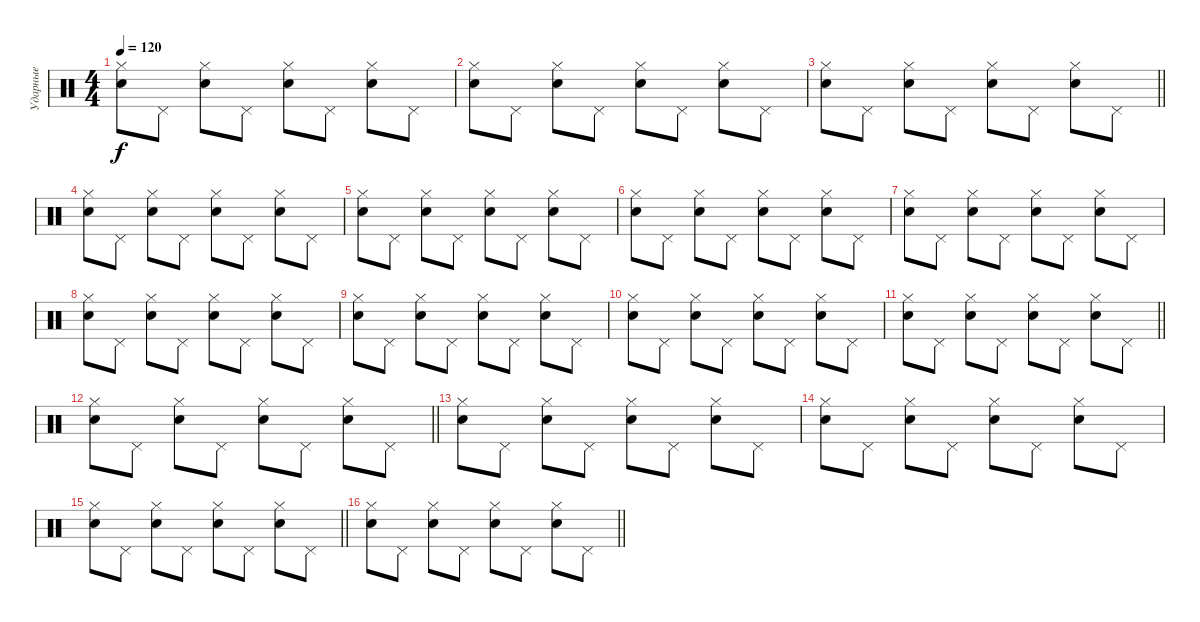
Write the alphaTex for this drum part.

\track ("Ударные" "Ударные") {instrument percussion}
\staff {score}
\articulation defaults
\ts (4 4)
\tempo 120
\clef neutral
\ks c
("Snare (hit) 2" "Hi-Hat (closed)").8{dy f} "Pedal Hi-Hat (hit)".8 ("Snare (hit) 2" "Hi-Hat (closed)").8 "Pedal Hi-Hat (hit)".8 ("Snare (hit) 2" "Hi-Hat (closed)").8 "Pedal Hi-Hat (hit)".8 ("Snare (hit) 2" "Hi-Hat (closed)").8 "Pedal Hi-Hat (hit)".8 |
("Snare (hit) 2" "Hi-Hat (closed)").8 "Pedal Hi-Hat (hit)".8 ("Snare (hit) 2" "Hi-Hat (closed)").8 "Pedal Hi-Hat (hit)".8 ("Snare (hit) 2" "Hi-Hat (closed)").8 "Pedal Hi-Hat (hit)".8 ("Snare (hit) 2" "Hi-Hat (closed)").8 "Pedal Hi-Hat (hit)".8 |
\barLineRight lightlight
("Snare (hit) 2" "Hi-Hat (closed)").8 "Pedal Hi-Hat (hit)".8 ("Snare (hit) 2" "Hi-Hat (closed)").8 "Pedal Hi-Hat (hit)".8 ("Snare (hit) 2" "Hi-Hat (closed)").8 "Pedal Hi-Hat (hit)".8 ("Snare (hit) 2" "Hi-Hat (closed)").8 "Pedal Hi-Hat (hit)".8 |
("Snare (hit) 2" "Hi-Hat (closed)").8 "Pedal Hi-Hat (hit)".8 ("Snare (hit) 2" "Hi-Hat (closed)").8 "Pedal Hi-Hat (hit)".8 ("Snare (hit) 2" "Hi-Hat (closed)").8 "Pedal Hi-Hat (hit)".8 ("Snare (hit) 2" "Hi-Hat (closed)").8 "Pedal Hi-Hat (hit)".8 |
("Snare (hit) 2" "Hi-Hat (closed)").8 "Pedal Hi-Hat (hit)".8 ("Snare (hit) 2" "Hi-Hat (closed)").8 "Pedal Hi-Hat (hit)".8 ("Snare (hit) 2" "Hi-Hat (closed)").8 "Pedal Hi-Hat (hit)".8 ("Snare (hit) 2" "Hi-Hat (closed)").8 "Pedal Hi-Hat (hit)".8 |
("Snare (hit) 2" "Hi-Hat (closed)").8 "Pedal Hi-Hat (hit)".8 ("Snare (hit) 2" "Hi-Hat (closed)").8 "Pedal Hi-Hat (hit)".8 ("Snare (hit) 2" "Hi-Hat (closed)").8 "Pedal Hi-Hat (hit)".8 ("Snare (hit) 2" "Hi-Hat (closed)").8 "Pedal Hi-Hat (hit)".8 |
("Snare (hit) 2" "Hi-Hat (closed)").8 "Pedal Hi-Hat (hit)".8 ("Snare (hit) 2" "Hi-Hat (closed)").8 "Pedal Hi-Hat (hit)".8 ("Snare (hit) 2" "Hi-Hat (closed)").8 "Pedal Hi-Hat (hit)".8 ("Snare (hit) 2" "Hi-Hat (closed)").8 "Pedal Hi-Hat (hit)".8 |
("Snare (hit) 2" "Hi-Hat (closed)").8 "Pedal Hi-Hat (hit)".8 ("Snare (hit) 2" "Hi-Hat (closed)").8 "Pedal Hi-Hat (hit)".8 ("Snare (hit) 2" "Hi-Hat (closed)").8 "Pedal Hi-Hat (hit)".8 ("Snare (hit) 2" "Hi-Hat (closed)").8 "Pedal Hi-Hat (hit)".8 |
("Snare (hit) 2" "Hi-Hat (closed)").8 "Pedal Hi-Hat (hit)".8 ("Snare (hit) 2" "Hi-Hat (closed)").8 "Pedal Hi-Hat (hit)".8 ("Snare (hit) 2" "Hi-Hat (closed)").8 "Pedal Hi-Hat (hit)".8 ("Snare (hit) 2" "Hi-Hat (closed)").8 "Pedal Hi-Hat (hit)".8 |
("Snare (hit) 2" "Hi-Hat (closed)").8 "Pedal Hi-Hat (hit)".8 ("Snare (hit) 2" "Hi-Hat (closed)").8 "Pedal Hi-Hat (hit)".8 ("Snare (hit) 2" "Hi-Hat (closed)").8 "Pedal Hi-Hat (hit)".8 ("Snare (hit) 2" "Hi-Hat (closed)").8 "Pedal Hi-Hat (hit)".8 |
\barLineRight lightlight
("Snare (hit) 2" "Hi-Hat (closed)").8 "Pedal Hi-Hat (hit)".8 ("Snare (hit) 2" "Hi-Hat (closed)").8 "Pedal Hi-Hat (hit)".8 ("Snare (hit) 2" "Hi-Hat (closed)").8 "Pedal Hi-Hat (hit)".8 ("Snare (hit) 2" "Hi-Hat (closed)").8 "Pedal Hi-Hat (hit)".8 |
\barLineRight lightlight
("Snare (hit) 2" "Hi-Hat (closed)").8 "Pedal Hi-Hat (hit)".8 ("Snare (hit) 2" "Hi-Hat (closed)").8 "Pedal Hi-Hat (hit)".8 ("Snare (hit) 2" "Hi-Hat (closed)").8 "Pedal Hi-Hat (hit)".8 ("Snare (hit) 2" "Hi-Hat (closed)").8 "Pedal Hi-Hat (hit)".8 |
("Snare (hit) 2" "Hi-Hat (closed)").8 "Pedal Hi-Hat (hit)".8 ("Snare (hit) 2" "Hi-Hat (closed)").8 "Pedal Hi-Hat (hit)".8 ("Snare (hit) 2" "Hi-Hat (closed)").8 "Pedal Hi-Hat (hit)".8 ("Snare (hit) 2" "Hi-Hat (closed)").8 "Pedal Hi-Hat (hit)".8 |
("Snare (hit) 2" "Hi-Hat (closed)").8 "Pedal Hi-Hat (hit)".8 ("Snare (hit) 2" "Hi-Hat (closed)").8 "Pedal Hi-Hat (hit)".8 ("Snare (hit) 2" "Hi-Hat (closed)").8 "Pedal Hi-Hat (hit)".8 ("Snare (hit) 2" "Hi-Hat (closed)").8 "Pedal Hi-Hat (hit)".8 |
\barLineRight lightlight
("Snare (hit) 2" "Hi-Hat (closed)").8 "Pedal Hi-Hat (hit)".8 ("Snare (hit) 2" "Hi-Hat (closed)").8 "Pedal Hi-Hat (hit)".8 ("Snare (hit) 2" "Hi-Hat (closed)").8 "Pedal Hi-Hat (hit)".8 ("Snare (hit) 2" "Hi-Hat (closed)").8 "Pedal Hi-Hat (hit)".8 |
\barLineRight lightlight
("Snare (hit) 2" "Hi-Hat (closed)").8 "Pedal Hi-Hat (hit)".8 ("Snare (hit) 2" "Hi-Hat (closed)").8 "Pedal Hi-Hat (hit)".8 ("Snare (hit) 2" "Hi-Hat (closed)").8 "Pedal Hi-Hat (hit)".8 ("Snare (hit) 2" "Hi-Hat (closed)").8 "Pedal Hi-Hat (hit)".8
